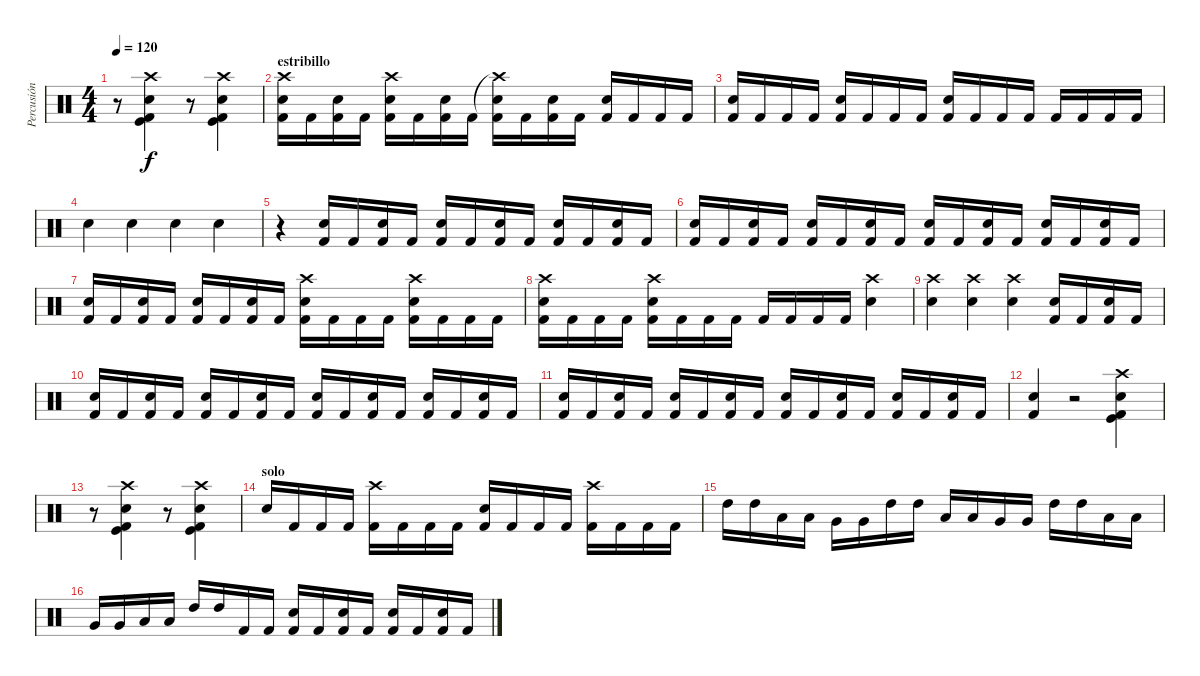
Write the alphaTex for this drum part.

\track ("Percusión" "Percusión") {instrument percussion}
\staff {score}
\articulation defaults
\ts (4 4)
\tempo 120
\clef neutral
\ks c
r.8{dy f} ("Crash high (hit)" "Kick (hit)" "Kick (hit) 2" "Electric Snare (hit)").4 r.8 ("Crash high (hit)" "Kick (hit)" "Kick (hit) 2" "Electric Snare (hit)").4 |
\section ("" "estribillo")
("Crash high (hit)" "Kick (hit) 2" "Electric Snare (hit)").16 "Kick (hit) 2".16 ("Kick (hit) 2" "Electric Snare (hit)").16 "Kick (hit) 2".16 ("Crash high (hit)" "Kick (hit) 2" "Electric Snare (hit)").16 "Kick (hit) 2".16 ("Kick (hit) 2" "Electric Snare (hit)").16 "Kick (hit) 2".16 ("Crash high (hit)"{t} "Kick (hit) 2" "Electric Snare (hit)").16 "Kick (hit) 2".16 ("Kick (hit) 2" "Electric Snare (hit)").16 "Kick (hit) 2".16 ("Kick (hit) 2" "Electric Snare (hit)").16 "Kick (hit) 2".16 "Kick (hit) 2".16 "Kick (hit) 2".16 |
("Kick (hit) 2" "Electric Snare (hit)").16 "Kick (hit) 2".16 "Kick (hit) 2".16 "Kick (hit) 2".16 ("Kick (hit) 2" "Electric Snare (hit)").16 "Kick (hit) 2".16 "Kick (hit) 2".16 "Kick (hit) 2".16 ("Kick (hit) 2" "Electric Snare (hit)").16 "Kick (hit) 2".16 "Kick (hit) 2".16 "Kick (hit) 2".16 "Kick (hit) 2".16 "Kick (hit) 2".16 "Kick (hit) 2".16 "Kick (hit) 2".16 |
"Electric Snare (hit)".4 "Electric Snare (hit)".4 "Electric Snare (hit)".4 "Electric Snare (hit)".4 |
r.4 ("Kick (hit) 2" "Electric Snare (hit)").16 "Kick (hit) 2".16 ("Kick (hit) 2" "Electric Snare (hit)").16 "Kick (hit) 2".16 ("Kick (hit) 2" "Electric Snare (hit)").16 "Kick (hit) 2".16 ("Kick (hit) 2" "Electric Snare (hit)").16 "Kick (hit) 2".16 ("Kick (hit) 2" "Electric Snare (hit)").16 "Kick (hit) 2".16 ("Kick (hit) 2" "Electric Snare (hit)").16 "Kick (hit) 2".16 |
("Kick (hit) 2" "Electric Snare (hit)").16 "Kick (hit) 2".16 ("Kick (hit) 2" "Electric Snare (hit)").16 "Kick (hit) 2".16 ("Kick (hit) 2" "Electric Snare (hit)").16 "Kick (hit) 2".16 ("Kick (hit) 2" "Electric Snare (hit)").16 "Kick (hit) 2".16 ("Kick (hit) 2" "Electric Snare (hit)").16 "Kick (hit) 2".16 ("Kick (hit) 2" "Electric Snare (hit)").16 "Kick (hit) 2".16 ("Kick (hit) 2" "Electric Snare (hit)").16 "Kick (hit) 2".16 ("Kick (hit) 2" "Electric Snare (hit)").16 "Kick (hit) 2".16 |
("Kick (hit) 2" "Electric Snare (hit)").16 "Kick (hit) 2".16 ("Kick (hit) 2" "Electric Snare (hit)").16 "Kick (hit) 2".16 ("Kick (hit) 2" "Electric Snare (hit)").16 "Kick (hit) 2".16 ("Kick (hit) 2" "Electric Snare (hit)").16 "Kick (hit) 2".16 ("Crash high (hit)" "Kick (hit) 2" "Electric Snare (hit)").16 "Kick (hit) 2".16 "Kick (hit) 2".16 "Kick (hit) 2".16 ("Crash high (hit)" "Kick (hit) 2" "Electric Snare (hit)").16 "Kick (hit) 2".16 "Kick (hit) 2".16 "Kick (hit) 2".16 |
("Crash high (hit)" "Kick (hit) 2" "Electric Snare (hit)").16 "Kick (hit) 2".16 "Kick (hit) 2".16 "Kick (hit) 2".16 ("Crash high (hit)" "Kick (hit) 2" "Electric Snare (hit)").16 "Kick (hit) 2".16 "Kick (hit) 2".16 "Kick (hit) 2".16 "Kick (hit) 2".16 "Kick (hit) 2".16 "Kick (hit) 2".16 "Kick (hit) 2".16 ("Crash high (hit)" "Electric Snare (hit)").4 |
("Crash high (hit)" "Electric Snare (hit)").4 ("Crash high (hit)" "Electric Snare (hit)").4 ("Crash high (hit)" "Electric Snare (hit)").4 ("Kick (hit) 2" "Electric Snare (hit)").16 "Kick (hit) 2".16 ("Kick (hit) 2" "Electric Snare (hit)").16 "Kick (hit) 2".16 |
("Kick (hit) 2" "Electric Snare (hit)").16 "Kick (hit) 2".16 ("Kick (hit) 2" "Electric Snare (hit)").16 "Kick (hit) 2".16 ("Kick (hit) 2" "Electric Snare (hit)").16 "Kick (hit) 2".16 ("Kick (hit) 2" "Electric Snare (hit)").16 "Kick (hit) 2".16 ("Kick (hit) 2" "Electric Snare (hit)").16 "Kick (hit) 2".16 ("Kick (hit) 2" "Electric Snare (hit)").16 "Kick (hit) 2".16 ("Kick (hit) 2" "Electric Snare (hit)").16 "Kick (hit) 2".16 ("Kick (hit) 2" "Electric Snare (hit)").16 "Kick (hit) 2".16 |
("Kick (hit) 2" "Electric Snare (hit)").16 "Kick (hit) 2".16 ("Kick (hit) 2" "Electric Snare (hit)").16 "Kick (hit) 2".16 ("Kick (hit) 2" "Electric Snare (hit)").16 "Kick (hit) 2".16 ("Kick (hit) 2" "Electric Snare (hit)").16 "Kick (hit) 2".16 ("Kick (hit) 2" "Electric Snare (hit)").16 "Kick (hit) 2".16 ("Kick (hit) 2" "Electric Snare (hit)").16 "Kick (hit) 2".16 ("Kick (hit) 2" "Electric Snare (hit)").16 "Kick (hit) 2".16 ("Kick (hit) 2" "Electric Snare (hit)").16 "Kick (hit) 2".16 |
("Kick (hit) 2" "Electric Snare (hit)").4 r.2 ("Crash high (hit)" "Kick (hit)" "Kick (hit) 2" "Electric Snare (hit)").4 |
r.8 ("Crash high (hit)" "Kick (hit)" "Kick (hit) 2" "Electric Snare (hit)").4 r.8 ("Crash high (hit)" "Kick (hit)" "Kick (hit) 2" "Electric Snare (hit)").4 |
\section ("" "solo")
"Electric Snare (hit)".16 "Kick (hit) 2".16 "Kick (hit) 2".16 "Kick (hit) 2".16 ("Crash high (hit)" "Kick (hit) 2").16 "Kick (hit) 2".16 "Kick (hit) 2".16 "Kick (hit) 2".16 ("Kick (hit) 2" "Electric Snare (hit)").16 "Kick (hit) 2".16 "Kick (hit) 2".16 "Kick (hit) 2".16 ("Crash high (hit)" "Kick (hit) 2").16 "Kick (hit) 2".16 "Kick (hit) 2".16 "Kick (hit) 2".16 |
"High Tom (hit)".16 "High Tom (hit)".16 "Low Tom (hit)".16 "Low Tom (hit)".16 "Very Low Tom (hit)".16 "Very Low Tom (hit)".16 "High Tom (hit)".16 "High Tom (hit)".16 "Low Tom (hit)".16 "Low Tom (hit)".16 "Very Low Tom (hit)".16 "Very Low Tom (hit)".16 "High Tom (hit)".16 "High Tom (hit)".16 "Low Tom (hit)".16 "Low Tom (hit)".16 |
"Very Low Tom (hit)".16 "Very Low Tom (hit)".16 "Low Tom (hit)".16 "Low Tom (hit)".16 "High Tom (hit)".16 "High Tom (hit)".16 "Kick (hit) 2".16 "Kick (hit) 2".16 ("Kick (hit) 2" "Electric Snare (hit)").16 "Kick (hit) 2".16 ("Kick (hit) 2" "Electric Snare (hit)").16 "Kick (hit) 2".16 ("Kick (hit) 2" "Electric Snare (hit)").16 "Kick (hit) 2".16 ("Kick (hit) 2" "Electric Snare (hit)").16 "Kick (hit) 2".16
